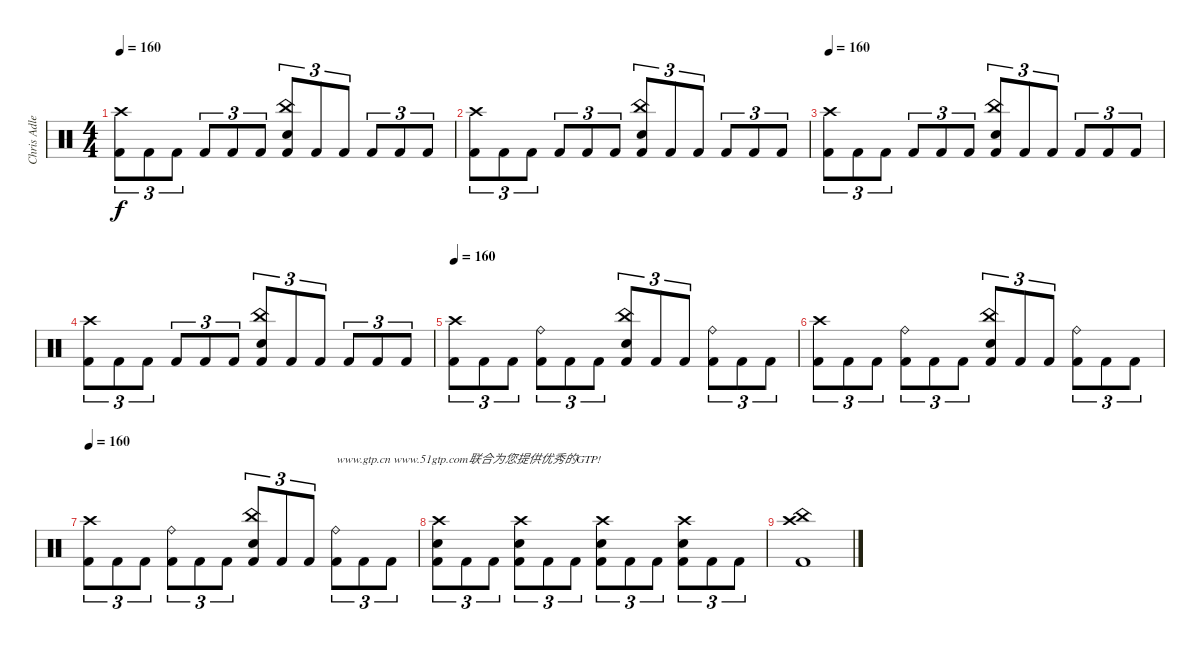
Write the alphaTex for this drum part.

\track ("Chris Adler" "Chris Adle") {instrument percussion}
\staff {score}
\articulation defaults
\ts (4 4)
\tempo 160
\clef neutral
\ks c
("Crash high (hit)" "Kick (hit) 2").8{tu (3 2) dy f} "Kick (hit) 2".8{tu (3 2)} "Kick (hit) 2".8{tu (3 2)} "Kick (hit) 2".8{tu (3 2)} "Kick (hit) 2".8{tu (3 2)} "Kick (hit) 2".8{tu (3 2)} ("China (hit)" "Electric Snare (hit)" "Kick (hit) 2").8{tu (3 2)} "Kick (hit) 2".8{tu (3 2)} "Kick (hit) 2".8{tu (3 2)} "Kick (hit) 2".8{tu (3 2)} "Kick (hit) 2".8{tu (3 2)} "Kick (hit) 2".8{tu (3 2)} |
("Crash high (hit)" "Kick (hit) 2").8{tu (3 2)} "Kick (hit) 2".8{tu (3 2)} "Kick (hit) 2".8{tu (3 2)} "Kick (hit) 2".8{tu (3 2)} "Kick (hit) 2".8{tu (3 2)} "Kick (hit) 2".8{tu (3 2)} ("China (hit)" "Electric Snare (hit)" "Kick (hit) 2").8{tu (3 2)} "Kick (hit) 2".8{tu (3 2)} "Kick (hit) 2".8{tu (3 2)} "Kick (hit) 2".8{tu (3 2)} "Kick (hit) 2".8{tu (3 2)} "Kick (hit) 2".8{tu (3 2)} |
\tempo 160
("Crash high (hit)" "Kick (hit) 2").8{tu (3 2)} "Kick (hit) 2".8{tu (3 2)} "Kick (hit) 2".8{tu (3 2)} "Kick (hit) 2".8{tu (3 2)} "Kick (hit) 2".8{tu (3 2)} "Kick (hit) 2".8{tu (3 2)} ("China (hit)" "Electric Snare (hit)" "Kick (hit) 2").8{tu (3 2)} "Kick (hit) 2".8{tu (3 2)} "Kick (hit) 2".8{tu (3 2)} "Kick (hit) 2".8{tu (3 2)} "Kick (hit) 2".8{tu (3 2)} "Kick (hit) 2".8{tu (3 2)} |
("Crash high (hit)" "Kick (hit) 2").8{tu (3 2)} "Kick (hit) 2".8{tu (3 2)} "Kick (hit) 2".8{tu (3 2)} "Kick (hit) 2".8{tu (3 2)} "Kick (hit) 2".8{tu (3 2)} "Kick (hit) 2".8{tu (3 2)} ("China (hit)" "Electric Snare (hit)" "Kick (hit) 2").8{tu (3 2)} "Kick (hit) 2".8{tu (3 2)} "Kick (hit) 2".8{tu (3 2)} "Kick (hit) 2".8{tu (3 2)} "Kick (hit) 2".8{tu (3 2)} "Kick (hit) 2".8{tu (3 2)} |
\tempo 160
("Crash high (hit)" "Kick (hit) 2").8{tu (3 2)} "Kick (hit) 2".8{tu (3 2)} "Kick (hit) 2".8{tu (3 2)} ("Ride (bell)" "Kick (hit) 2").8{tu (3 2)} "Kick (hit) 2".8{tu (3 2)} "Kick (hit) 2".8{tu (3 2)} ("China (hit)" "Electric Snare (hit)" "Kick (hit) 2").8{tu (3 2)} "Kick (hit) 2".8{tu (3 2)} "Kick (hit) 2".8{tu (3 2)} ("Ride (bell)" "Kick (hit) 2").8{tu (3 2)} "Kick (hit) 2".8{tu (3 2)} "Kick (hit) 2".8{tu (3 2)} |
("Crash high (hit)" "Kick (hit) 2").8{tu (3 2)} "Kick (hit) 2".8{tu (3 2)} "Kick (hit) 2".8{tu (3 2)} ("Ride (bell)" "Kick (hit) 2").8{tu (3 2)} "Kick (hit) 2".8{tu (3 2)} "Kick (hit) 2".8{tu (3 2)} ("China (hit)" "Electric Snare (hit)" "Kick (hit) 2").8{tu (3 2)} "Kick (hit) 2".8{tu (3 2)} "Kick (hit) 2".8{tu (3 2)} ("Ride (bell)" "Kick (hit) 2").8{tu (3 2)} "Kick (hit) 2".8{tu (3 2)} "Kick (hit) 2".8{tu (3 2)} |
\tempo 160
("Crash high (hit)" "Kick (hit) 2").8{tu (3 2)} "Kick (hit) 2".8{tu (3 2)} "Kick (hit) 2".8{tu (3 2)} ("Ride (bell)" "Kick (hit) 2").8{tu (3 2)} "Kick (hit) 2".8{tu (3 2)} "Kick (hit) 2".8{tu (3 2)} ("China (hit)" "Electric Snare (hit)" "Kick (hit) 2").8{tu (3 2)} "Kick (hit) 2".8{tu (3 2)} "Kick (hit) 2".8{tu (3 2)} ("Ride (bell)" "Kick (hit) 2").8{tu (3 2) txt "www.gtp.cn www.51gtp.com联合为您提供优秀的GTP!"} "Kick (hit) 2".8{tu (3 2)} "Kick (hit) 2".8{tu (3 2)} |
("Crash high (hit)" "Electric Snare (hit)" "Kick (hit) 2").8{tu (3 2)} "Kick (hit) 2".8{tu (3 2)} "Kick (hit) 2".8{tu (3 2)} ("Crash high (hit)" "Electric Snare (hit)" "Kick (hit) 2").8{tu (3 2)} "Kick (hit) 2".8{tu (3 2)} "Kick (hit) 2".8{tu (3 2)} ("Crash high (hit)" "Electric Snare (hit)" "Kick (hit) 2").8{tu (3 2)} "Kick (hit) 2".8{tu (3 2)} "Kick (hit) 2".8{tu (3 2)} ("Crash high (hit)" "Electric Snare (hit)" "Kick (hit) 2").8{tu (3 2)} "Kick (hit) 2".8{tu (3 2)} "Kick (hit) 2".8{tu (3 2)} |
("China (hit)" "Crash high (hit)" "Kick (hit) 2").1
